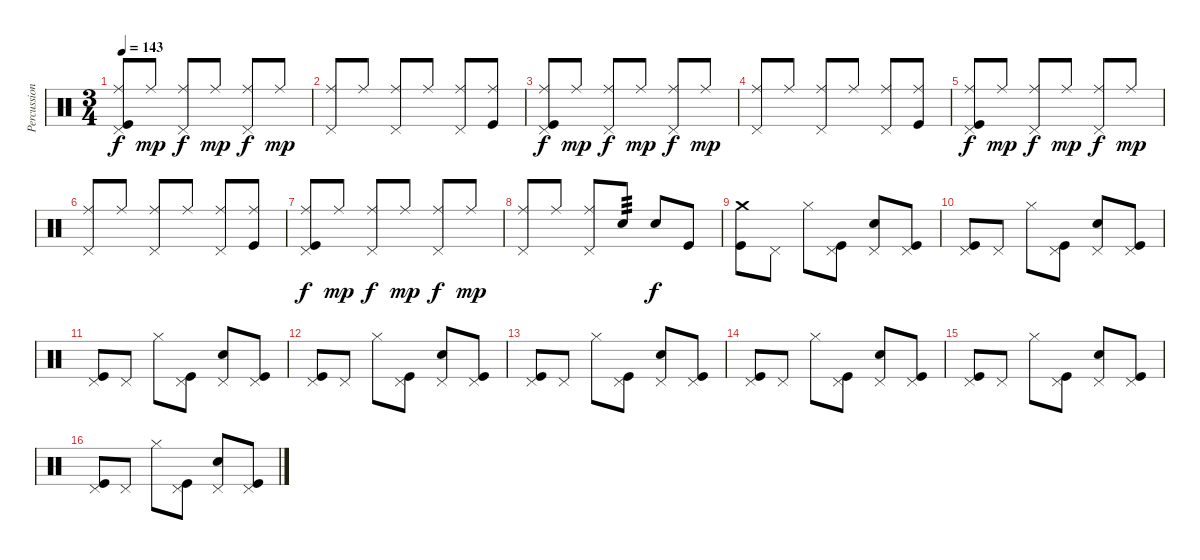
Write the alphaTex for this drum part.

\track ("Percussion" "Percussion") {instrument percussion}
\staff {score}
\articulation defaults
\ts (3 4)
\tempo 143
\clef neutral
\ks c
("Ride (middle)" "Kick (hit)" "Pedal Hi-Hat (hit)").8{dy f} "Ride (middle)".8{dy mp} ("Ride (middle)" "Pedal Hi-Hat (hit)").8{dy f} "Ride (middle)".8{dy mp} ("Ride (middle)" "Pedal Hi-Hat (hit)").8{dy f} "Ride (middle)".8{dy mp} |
("Ride (middle)" "Pedal Hi-Hat (hit)").8 "Ride (middle)".8 ("Ride (middle)" "Pedal Hi-Hat (hit)").8 "Ride (middle)".8 ("Ride (middle)" "Pedal Hi-Hat (hit)").8 ("Ride (middle)" "Kick (hit)").8 |
("Ride (middle)" "Kick (hit)" "Pedal Hi-Hat (hit)").8{dy f} "Ride (middle)".8{dy mp} ("Ride (middle)" "Pedal Hi-Hat (hit)").8{dy f} "Ride (middle)".8{dy mp} ("Ride (middle)" "Pedal Hi-Hat (hit)").8{dy f} "Ride (middle)".8{dy mp} |
("Ride (middle)" "Pedal Hi-Hat (hit)").8 "Ride (middle)".8 ("Ride (middle)" "Pedal Hi-Hat (hit)").8 "Ride (middle)".8 ("Ride (middle)" "Pedal Hi-Hat (hit)").8 ("Ride (middle)" "Kick (hit)").8 |
("Ride (middle)" "Kick (hit)" "Pedal Hi-Hat (hit)").8{dy f} "Ride (middle)".8{dy mp} ("Ride (middle)" "Pedal Hi-Hat (hit)").8{dy f} "Ride (middle)".8{dy mp} ("Ride (middle)" "Pedal Hi-Hat (hit)").8{dy f} "Ride (middle)".8{dy mp} |
("Ride (middle)" "Pedal Hi-Hat (hit)").8 "Ride (middle)".8 ("Ride (middle)" "Pedal Hi-Hat (hit)").8 "Ride (middle)".8 ("Ride (middle)" "Pedal Hi-Hat (hit)").8 ("Ride (middle)" "Kick (hit)").8 |
("Ride (middle)" "Kick (hit)" "Pedal Hi-Hat (hit)").8{dy f} "Ride (middle)".8{dy mp} ("Ride (middle)" "Pedal Hi-Hat (hit)").8{dy f} "Ride (middle)".8{dy mp} ("Ride (middle)" "Pedal Hi-Hat (hit)").8{dy f} "Ride (middle)".8{dy mp} |
("Ride (middle)" "Pedal Hi-Hat (hit)").8 "Ride (middle)".8 ("Ride (middle)" "Pedal Hi-Hat (hit)").8 "Electric Snare (hit)".8{tp 3} "Electric Snare (hit)".8{dy f} "Kick (hit)".8 |
("Crash medium (hit)" "Kick (hit)").8 "Pedal Hi-Hat (hit)".8 "Hi-Hat (closed)".8 ("Pedal Hi-Hat (hit)" "Kick (hit)").8 ("Pedal Hi-Hat (hit)" "Electric Snare (hit)").8 ("Pedal Hi-Hat (hit)" "Kick (hit)").8 |
("Pedal Hi-Hat (hit)" "Kick (hit)").8 "Pedal Hi-Hat (hit)".8 "Hi-Hat (closed)".8 ("Pedal Hi-Hat (hit)" "Kick (hit)").8 ("Pedal Hi-Hat (hit)" "Electric Snare (hit)").8 ("Pedal Hi-Hat (hit)" "Kick (hit)").8 |
("Pedal Hi-Hat (hit)" "Kick (hit)").8 "Pedal Hi-Hat (hit)".8 "Hi-Hat (closed)".8 ("Pedal Hi-Hat (hit)" "Kick (hit)").8 ("Pedal Hi-Hat (hit)" "Electric Snare (hit)").8 ("Pedal Hi-Hat (hit)" "Kick (hit)").8 |
("Pedal Hi-Hat (hit)" "Kick (hit)").8 "Pedal Hi-Hat (hit)".8 "Hi-Hat (closed)".8 ("Pedal Hi-Hat (hit)" "Kick (hit)").8 ("Pedal Hi-Hat (hit)" "Electric Snare (hit)").8 ("Pedal Hi-Hat (hit)" "Kick (hit)").8 |
("Pedal Hi-Hat (hit)" "Kick (hit)").8 "Pedal Hi-Hat (hit)".8 "Hi-Hat (closed)".8 ("Pedal Hi-Hat (hit)" "Kick (hit)").8 ("Pedal Hi-Hat (hit)" "Electric Snare (hit)").8 ("Pedal Hi-Hat (hit)" "Kick (hit)").8 |
("Pedal Hi-Hat (hit)" "Kick (hit)").8 "Pedal Hi-Hat (hit)".8 "Hi-Hat (closed)".8 ("Pedal Hi-Hat (hit)" "Kick (hit)").8 ("Pedal Hi-Hat (hit)" "Electric Snare (hit)").8 ("Pedal Hi-Hat (hit)" "Kick (hit)").8 |
("Pedal Hi-Hat (hit)" "Kick (hit)").8 "Pedal Hi-Hat (hit)".8 "Hi-Hat (closed)".8 ("Pedal Hi-Hat (hit)" "Kick (hit)").8 ("Pedal Hi-Hat (hit)" "Electric Snare (hit)").8 ("Pedal Hi-Hat (hit)" "Kick (hit)").8 |
("Pedal Hi-Hat (hit)" "Kick (hit)").8 "Pedal Hi-Hat (hit)".8 "Hi-Hat (closed)".8 ("Pedal Hi-Hat (hit)" "Kick (hit)").8 ("Pedal Hi-Hat (hit)" "Electric Snare (hit)").8 ("Pedal Hi-Hat (hit)" "Kick (hit)").8
